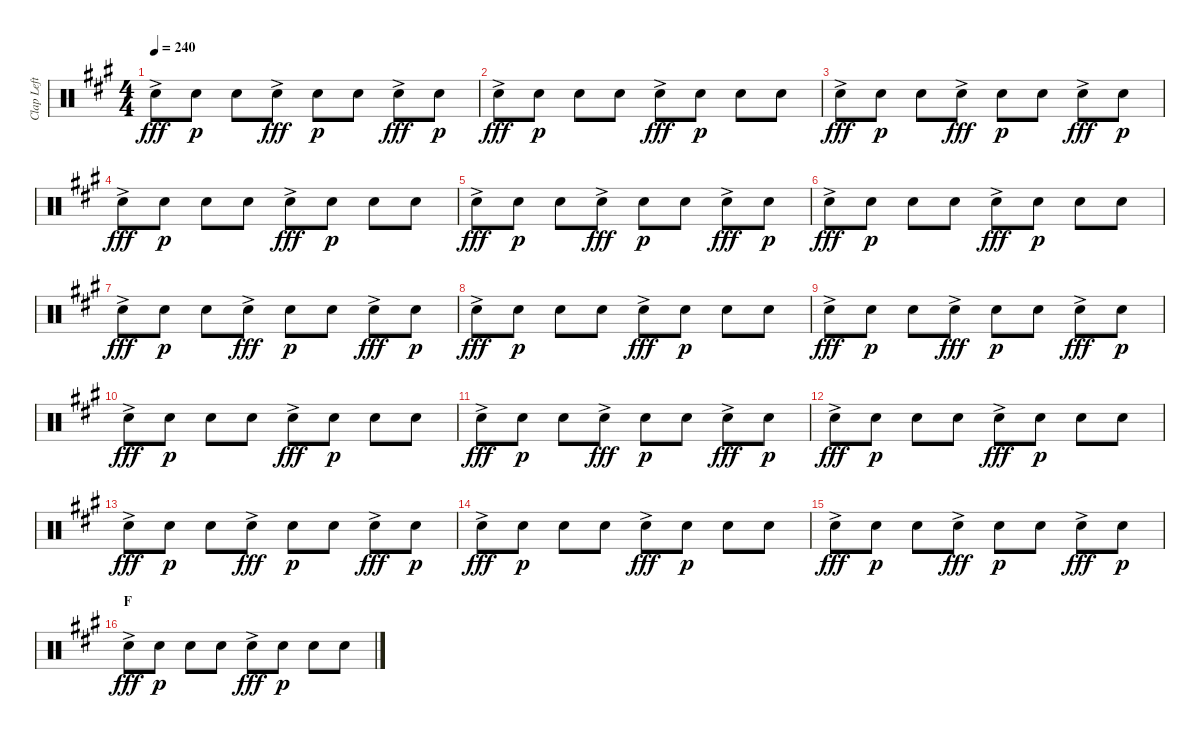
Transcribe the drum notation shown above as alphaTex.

\track ("Clap Left" "Clap Left") {instrument percussion}
\staff {score}
\articulation defaults
\ts (4 4)
\tempo 240
\clef neutral
\ks a "Hand Clap (hit)"{ac}.8{dy fff} "Hand Clap (hit)".8{dy p} "Hand Clap (hit)".8 "Hand Clap (hit)"{ac}.8{dy fff} "Hand Clap (hit)".8{dy p} "Hand Clap (hit)".8 "Hand Clap (hit)"{ac}.8{dy fff} "Hand Clap (hit)".8{dy p}
|
"Hand Clap (hit)"{ac}.8{dy fff} "Hand Clap (hit)".8{dy p} "Hand Clap (hit)".8 "Hand Clap (hit)".8 "Hand Clap (hit)"{ac}.8{dy fff} "Hand Clap (hit)".8{dy p} "Hand Clap (hit)".8 "Hand Clap (hit)".8 |
"Hand Clap (hit)"{ac}.8{dy fff} "Hand Clap (hit)".8{dy p} "Hand Clap (hit)".8 "Hand Clap (hit)"{ac}.8{dy fff} "Hand Clap (hit)".8{dy p} "Hand Clap (hit)".8 "Hand Clap (hit)"{ac}.8{dy fff} "Hand Clap (hit)".8{dy p} |
"Hand Clap (hit)"{ac}.8{dy fff} "Hand Clap (hit)".8{dy p} "Hand Clap (hit)".8 "Hand Clap (hit)".8 "Hand Clap (hit)"{ac}.8{dy fff} "Hand Clap (hit)".8{dy p} "Hand Clap (hit)".8 "Hand Clap (hit)".8 |
"Hand Clap (hit)"{ac}.8{dy fff} "Hand Clap (hit)".8{dy p} "Hand Clap (hit)".8 "Hand Clap (hit)"{ac}.8{dy fff} "Hand Clap (hit)".8{dy p} "Hand Clap (hit)".8 "Hand Clap (hit)"{ac}.8{dy fff} "Hand Clap (hit)".8{dy p} |
"Hand Clap (hit)"{ac}.8{dy fff} "Hand Clap (hit)".8{dy p} "Hand Clap (hit)".8 "Hand Clap (hit)".8 "Hand Clap (hit)"{ac}.8{dy fff} "Hand Clap (hit)".8{dy p} "Hand Clap (hit)".8 "Hand Clap (hit)".8 |
"Hand Clap (hit)"{ac}.8{dy fff} "Hand Clap (hit)".8{dy p} "Hand Clap (hit)".8 "Hand Clap (hit)"{ac}.8{dy fff} "Hand Clap (hit)".8{dy p} "Hand Clap (hit)".8 "Hand Clap (hit)"{ac}.8{dy fff} "Hand Clap (hit)".8{dy p} |
"Hand Clap (hit)"{ac}.8{dy fff} "Hand Clap (hit)".8{dy p} "Hand Clap (hit)".8 "Hand Clap (hit)".8 "Hand Clap (hit)"{ac}.8{dy fff} "Hand Clap (hit)".8{dy p} "Hand Clap (hit)".8 "Hand Clap (hit)".8 |
"Hand Clap (hit)"{ac}.8{dy fff} "Hand Clap (hit)".8{dy p} "Hand Clap (hit)".8 "Hand Clap (hit)"{ac}.8{dy fff} "Hand Clap (hit)".8{dy p} "Hand Clap (hit)".8 "Hand Clap (hit)"{ac}.8{dy fff} "Hand Clap (hit)".8{dy p} |
"Hand Clap (hit)"{ac}.8{dy fff} "Hand Clap (hit)".8{dy p} "Hand Clap (hit)".8 "Hand Clap (hit)".8 "Hand Clap (hit)"{ac}.8{dy fff} "Hand Clap (hit)".8{dy p} "Hand Clap (hit)".8 "Hand Clap (hit)".8 |
"Hand Clap (hit)"{ac}.8{dy fff} "Hand Clap (hit)".8{dy p} "Hand Clap (hit)".8 "Hand Clap (hit)"{ac}.8{dy fff} "Hand Clap (hit)".8{dy p} "Hand Clap (hit)".8 "Hand Clap (hit)"{ac}.8{dy fff} "Hand Clap (hit)".8{dy p} |
"Hand Clap (hit)"{ac}.8{dy fff} "Hand Clap (hit)".8{dy p} "Hand Clap (hit)".8 "Hand Clap (hit)".8 "Hand Clap (hit)"{ac}.8{dy fff} "Hand Clap (hit)".8{dy p} "Hand Clap (hit)".8 "Hand Clap (hit)".8 |
"Hand Clap (hit)"{ac}.8{dy fff} "Hand Clap (hit)".8{dy p} "Hand Clap (hit)".8 "Hand Clap (hit)"{ac}.8{dy fff} "Hand Clap (hit)".8{dy p} "Hand Clap (hit)".8 "Hand Clap (hit)"{ac}.8{dy fff} "Hand Clap (hit)".8{dy p} |
"Hand Clap (hit)"{ac}.8{dy fff} "Hand Clap (hit)".8{dy p} "Hand Clap (hit)".8 "Hand Clap (hit)".8 "Hand Clap (hit)"{ac}.8{dy fff} "Hand Clap (hit)".8{dy p} "Hand Clap (hit)".8 "Hand Clap (hit)".8 |
"Hand Clap (hit)"{ac}.8{dy fff} "Hand Clap (hit)".8{dy p} "Hand Clap (hit)".8 "Hand Clap (hit)"{ac}.8{dy fff} "Hand Clap (hit)".8{dy p} "Hand Clap (hit)".8 "Hand Clap (hit)"{ac}.8{dy fff} "Hand Clap (hit)".8{dy p} |
\section ("" "F")
"Hand Clap (hit)"{ac}.8{dy fff} "Hand Clap (hit)".8{dy p} "Hand Clap (hit)".8 "Hand Clap (hit)".8 "Hand Clap (hit)"{ac}.8{dy fff} "Hand Clap (hit)".8{dy p} "Hand Clap (hit)".8 "Hand Clap (hit)".8
